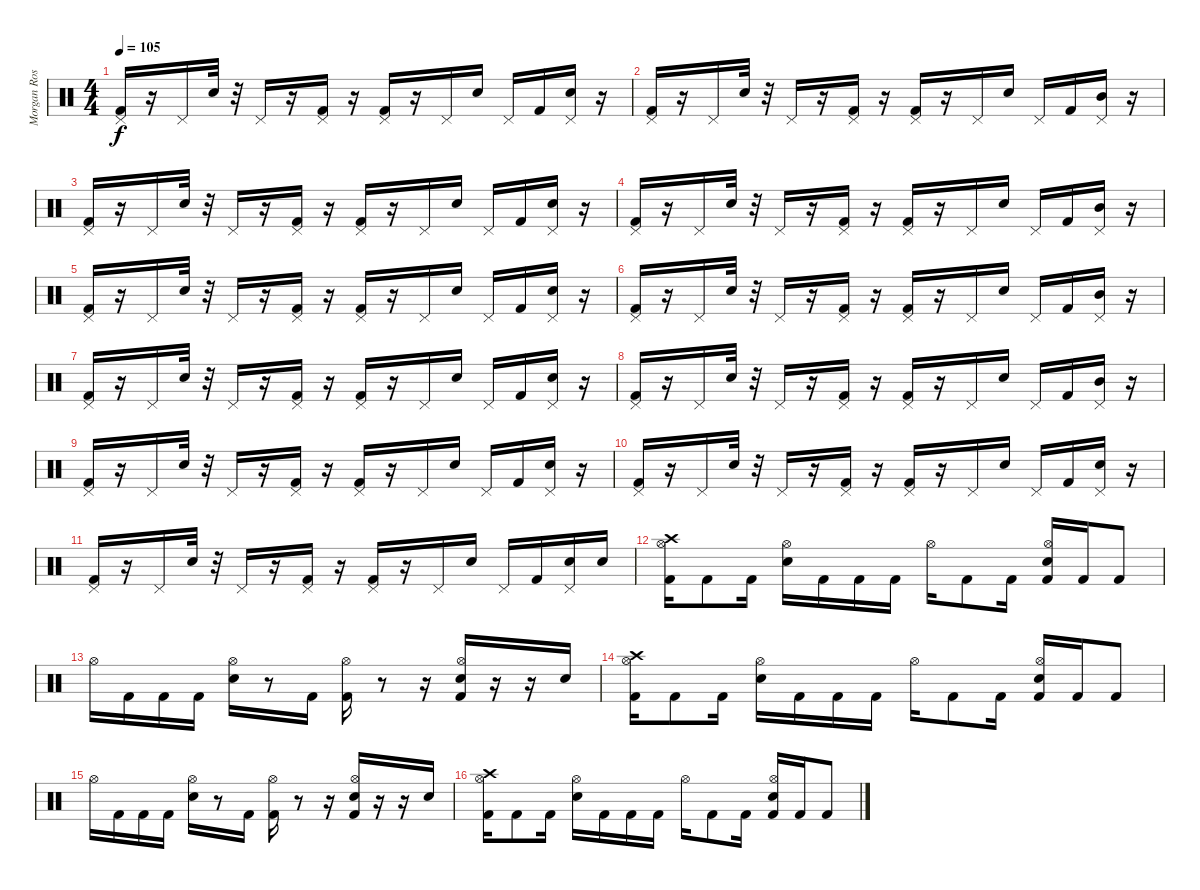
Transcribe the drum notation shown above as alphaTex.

\track ("Morgan Rose - Drums" "Morgan Ros") {instrument percussion}
\staff {score}
\articulation defaults
\ts (4 4)
\tempo 105
\clef neutral
\ks c
("Kick (hit) 2" "Pedal Hi-Hat (hit)").16{dy f} r.16 "Pedal Hi-Hat (hit)".16 "Electric Snare (hit)".32 r.32 "Pedal Hi-Hat (hit)".16 r.16 ("Kick (hit) 2" "Pedal Hi-Hat (hit)").16 r.16 ("Kick (hit) 2" "Pedal Hi-Hat (hit)").16 r.16 "Pedal Hi-Hat (hit)".16 "Electric Snare (hit)".16 "Pedal Hi-Hat (hit)".16 "Kick (hit) 2".16 ("Electric Snare (hit)" "Pedal Hi-Hat (hit)").16 r.16 |
("Kick (hit) 2" "Pedal Hi-Hat (hit)").16 r.16 "Pedal Hi-Hat (hit)".16 "Electric Snare (hit)".32 r.32 "Pedal Hi-Hat (hit)".16 r.16 ("Kick (hit) 2" "Pedal Hi-Hat (hit)").16 r.16 ("Kick (hit) 2" "Pedal Hi-Hat (hit)").16 r.16 "Pedal Hi-Hat (hit)".16 "Electric Snare (hit)".16 "Pedal Hi-Hat (hit)".16 "Kick (hit) 2".16 ("Mid Tom (hit)" "Pedal Hi-Hat (hit)").16 r.16 |
("Kick (hit) 2" "Pedal Hi-Hat (hit)").16 r.16 "Pedal Hi-Hat (hit)".16 "Electric Snare (hit)".32 r.32 "Pedal Hi-Hat (hit)".16 r.16 ("Kick (hit) 2" "Pedal Hi-Hat (hit)").16 r.16 ("Kick (hit) 2" "Pedal Hi-Hat (hit)").16 r.16 "Pedal Hi-Hat (hit)".16 "Electric Snare (hit)".16 "Pedal Hi-Hat (hit)".16 "Kick (hit) 2".16 ("Electric Snare (hit)" "Pedal Hi-Hat (hit)").16 r.16 |
("Kick (hit) 2" "Pedal Hi-Hat (hit)").16 r.16 "Pedal Hi-Hat (hit)".16 "Electric Snare (hit)".32 r.32 "Pedal Hi-Hat (hit)".16 r.16 ("Kick (hit) 2" "Pedal Hi-Hat (hit)").16 r.16 ("Kick (hit) 2" "Pedal Hi-Hat (hit)").16 r.16 "Pedal Hi-Hat (hit)".16 "Electric Snare (hit)".16 "Pedal Hi-Hat (hit)".16 "Kick (hit) 2".16 ("Mid Tom (hit)" "Pedal Hi-Hat (hit)").16 r.16 |
("Kick (hit) 2" "Pedal Hi-Hat (hit)").16 r.16 "Pedal Hi-Hat (hit)".16 "Electric Snare (hit)".32 r.32 "Pedal Hi-Hat (hit)".16 r.16 ("Kick (hit) 2" "Pedal Hi-Hat (hit)").16 r.16 ("Kick (hit) 2" "Pedal Hi-Hat (hit)").16 r.16 "Pedal Hi-Hat (hit)".16 "Electric Snare (hit)".16 "Pedal Hi-Hat (hit)".16 "Kick (hit) 2".16 ("Electric Snare (hit)" "Pedal Hi-Hat (hit)").16 r.16 |
("Kick (hit) 2" "Pedal Hi-Hat (hit)").16 r.16 "Pedal Hi-Hat (hit)".16 "Electric Snare (hit)".32 r.32 "Pedal Hi-Hat (hit)".16 r.16 ("Kick (hit) 2" "Pedal Hi-Hat (hit)").16 r.16 ("Kick (hit) 2" "Pedal Hi-Hat (hit)").16 r.16 "Pedal Hi-Hat (hit)".16 "Electric Snare (hit)".16 "Pedal Hi-Hat (hit)".16 "Kick (hit) 2".16 ("Mid Tom (hit)" "Pedal Hi-Hat (hit)").16 r.16 |
("Kick (hit) 2" "Pedal Hi-Hat (hit)").16 r.16 "Pedal Hi-Hat (hit)".16 "Electric Snare (hit)".32 r.32 "Pedal Hi-Hat (hit)".16 r.16 ("Kick (hit) 2" "Pedal Hi-Hat (hit)").16 r.16 ("Kick (hit) 2" "Pedal Hi-Hat (hit)").16 r.16 "Pedal Hi-Hat (hit)".16 "Electric Snare (hit)".16 "Pedal Hi-Hat (hit)".16 "Kick (hit) 2".16 ("Electric Snare (hit)" "Pedal Hi-Hat (hit)").16 r.16 |
("Kick (hit) 2" "Pedal Hi-Hat (hit)").16 r.16 "Pedal Hi-Hat (hit)".16 "Electric Snare (hit)".32 r.32 "Pedal Hi-Hat (hit)".16 r.16 ("Kick (hit) 2" "Pedal Hi-Hat (hit)").16 r.16 ("Kick (hit) 2" "Pedal Hi-Hat (hit)").16 r.16 "Pedal Hi-Hat (hit)".16 "Electric Snare (hit)".16 "Pedal Hi-Hat (hit)".16 "Kick (hit) 2".16 ("Mid Tom (hit)" "Pedal Hi-Hat (hit)").16 r.16 |
("Kick (hit) 2" "Pedal Hi-Hat (hit)").16 r.16 "Pedal Hi-Hat (hit)".16 "Electric Snare (hit)".32 r.32 "Pedal Hi-Hat (hit)".16 r.16 ("Kick (hit) 2" "Pedal Hi-Hat (hit)").16 r.16 ("Kick (hit) 2" "Pedal Hi-Hat (hit)").16 r.16 "Pedal Hi-Hat (hit)".16 "Electric Snare (hit)".16 "Pedal Hi-Hat (hit)".16 "Kick (hit) 2".16 ("Electric Snare (hit)" "Pedal Hi-Hat (hit)").16 r.16 |
("Kick (hit) 2" "Pedal Hi-Hat (hit)").16 r.16 "Pedal Hi-Hat (hit)".16 "Electric Snare (hit)".32 r.32 "Pedal Hi-Hat (hit)".16 r.16 ("Kick (hit) 2" "Pedal Hi-Hat (hit)").16 r.16 ("Kick (hit) 2" "Pedal Hi-Hat (hit)").16 r.16 "Pedal Hi-Hat (hit)".16 "Electric Snare (hit)".16 "Pedal Hi-Hat (hit)".16 "Kick (hit) 2".16 ("Electric Snare (hit)" "Pedal Hi-Hat (hit)").16 r.16 |
("Kick (hit) 2" "Pedal Hi-Hat (hit)").16 r.16 "Pedal Hi-Hat (hit)".16 "Electric Snare (hit)".32 r.32 "Pedal Hi-Hat (hit)".16 r.16 ("Kick (hit) 2" "Pedal Hi-Hat (hit)").16 r.16 ("Kick (hit) 2" "Pedal Hi-Hat (hit)").16 r.16 "Pedal Hi-Hat (hit)".16 "Electric Snare (hit)".16 "Pedal Hi-Hat (hit)".16 "Kick (hit) 2".16 ("Electric Snare (hit)" "Pedal Hi-Hat (hit)").16 "Electric Snare (hit)".16 |
("Kick (hit) 2" "Hi-Hat (open)" "Crash high (hit)").16 "Kick (hit) 2".8 "Kick (hit) 2".16 ("Snare (hit) 2" "Hi-Hat (open)").16 "Kick (hit) 2".16 "Kick (hit) 2".16 "Kick (hit) 2".16 "Hi-Hat (open)".16 "Kick (hit) 2".8 "Kick (hit) 2".16 ("Kick (hit) 2" "Snare (hit) 2" "Hi-Hat (open)").16 "Kick (hit) 2".16 "Kick (hit) 2".8 |
"Hi-Hat (open)".16 "Kick (hit) 2".16 "Kick (hit) 2".16 "Kick (hit) 2".16 ("Snare (hit) 2" "Hi-Hat (open)").16 r.8 "Kick (hit) 2".16 ("Kick (hit) 2" "Hi-Hat (open)").16 r.8 r.16 ("Kick (hit) 2" "Snare (hit) 2" "Hi-Hat (open)").16 r.16 r.16 "Snare (hit) 2".16 |
("Kick (hit) 2" "Hi-Hat (open)" "Crash high (hit)").16 "Kick (hit) 2".8 "Kick (hit) 2".16 ("Snare (hit) 2" "Hi-Hat (open)").16 "Kick (hit) 2".16 "Kick (hit) 2".16 "Kick (hit) 2".16 "Hi-Hat (open)".16 "Kick (hit) 2".8 "Kick (hit) 2".16 ("Kick (hit) 2" "Snare (hit) 2" "Hi-Hat (open)").16 "Kick (hit) 2".16 "Kick (hit) 2".8 |
"Hi-Hat (open)".16 "Kick (hit) 2".16 "Kick (hit) 2".16 "Kick (hit) 2".16 ("Snare (hit) 2" "Hi-Hat (open)").16 r.8 "Kick (hit) 2".16 ("Kick (hit) 2" "Hi-Hat (open)").16 r.8 r.16 ("Kick (hit) 2" "Snare (hit) 2" "Hi-Hat (open)").16 r.16 r.16 "Snare (hit) 2".16 |
("Kick (hit) 2" "Hi-Hat (open)" "Crash high (hit)").16 "Kick (hit) 2".8 "Kick (hit) 2".16 ("Snare (hit) 2" "Hi-Hat (open)").16 "Kick (hit) 2".16 "Kick (hit) 2".16 "Kick (hit) 2".16 "Hi-Hat (open)".16 "Kick (hit) 2".8 "Kick (hit) 2".16 ("Kick (hit) 2" "Snare (hit) 2" "Hi-Hat (open)").16 "Kick (hit) 2".16 "Kick (hit) 2".8
